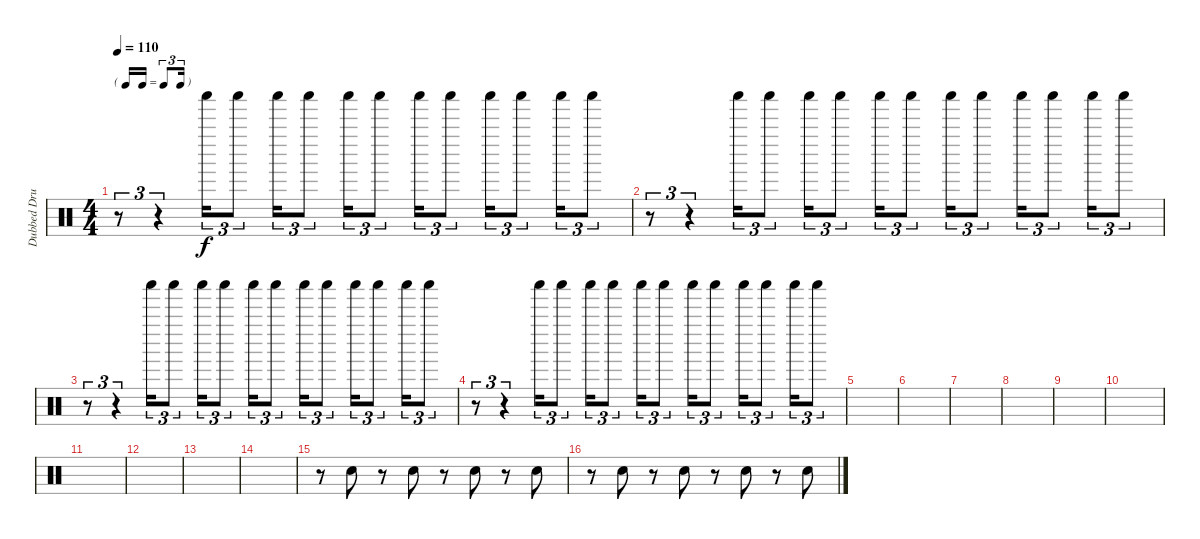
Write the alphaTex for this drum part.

\track ("Dubbed Drums - Zac" "Dubbed Dru") {instrument percussion}
\staff {score}
\articulation defaults
\ts (4 4)
\tf triplet16th
\tempo 110
\clef neutral
\ks c
r.8{tu (3 2) dy f} r.4{tu (3 2)} "Shaker (hit)".16{tu (3 2)} "Shaker (hit)".8{tu (3 2)} "Shaker (hit)".16{tu (3 2)} "Shaker (hit)".8{tu (3 2)} "Shaker (hit)".16{tu (3 2)} "Shaker (hit)".8{tu (3 2)} "Shaker (hit)".16{tu (3 2)} "Shaker (hit)".8{tu (3 2)} "Shaker (hit)".16{tu (3 2)} "Shaker (hit)".8{tu (3 2)} "Shaker (hit)".16{tu (3 2)} "Shaker (hit)".8{tu (3 2)} |
r.8{tu (3 2)} r.4{tu (3 2)} "Shaker (hit)".16{tu (3 2)} "Shaker (hit)".8{tu (3 2)} "Shaker (hit)".16{tu (3 2)} "Shaker (hit)".8{tu (3 2)} "Shaker (hit)".16{tu (3 2)} "Shaker (hit)".8{tu (3 2)} "Shaker (hit)".16{tu (3 2)} "Shaker (hit)".8{tu (3 2)} "Shaker (hit)".16{tu (3 2)} "Shaker (hit)".8{tu (3 2)} "Shaker (hit)".16{tu (3 2)} "Shaker (hit)".8{tu (3 2)} |
r.8{tu (3 2)} r.4{tu (3 2)} "Shaker (hit)".16{tu (3 2)} "Shaker (hit)".8{tu (3 2)} "Shaker (hit)".16{tu (3 2)} "Shaker (hit)".8{tu (3 2)} "Shaker (hit)".16{tu (3 2)} "Shaker (hit)".8{tu (3 2)} "Shaker (hit)".16{tu (3 2)} "Shaker (hit)".8{tu (3 2)} "Shaker (hit)".16{tu (3 2)} "Shaker (hit)".8{tu (3 2)} "Shaker (hit)".16{tu (3 2)} "Shaker (hit)".8{tu (3 2)} |
r.8{tu (3 2)} r.4{tu (3 2)} "Shaker (hit)".16{tu (3 2)} "Shaker (hit)".8{tu (3 2)} "Shaker (hit)".16{tu (3 2)} "Shaker (hit)".8{tu (3 2)} "Shaker (hit)".16{tu (3 2)} "Shaker (hit)".8{tu (3 2)} "Shaker (hit)".16{tu (3 2)} "Shaker (hit)".8{tu (3 2)} "Shaker (hit)".16{tu (3 2)} "Shaker (hit)".8{tu (3 2)} "Shaker (hit)".16{tu (3 2)} "Shaker (hit)".8{tu (3 2)} |
|
|
|
|
|
|
|
|
|
|
r.8 "Hand Clap (hit)".8 r.8 "Hand Clap (hit)".8 r.8 "Hand Clap (hit)".8 r.8 "Hand Clap (hit)".8 |
r.8 "Hand Clap (hit)".8 r.8 "Hand Clap (hit)".8 r.8 "Hand Clap (hit)".8 r.8 "Hand Clap (hit)".8
